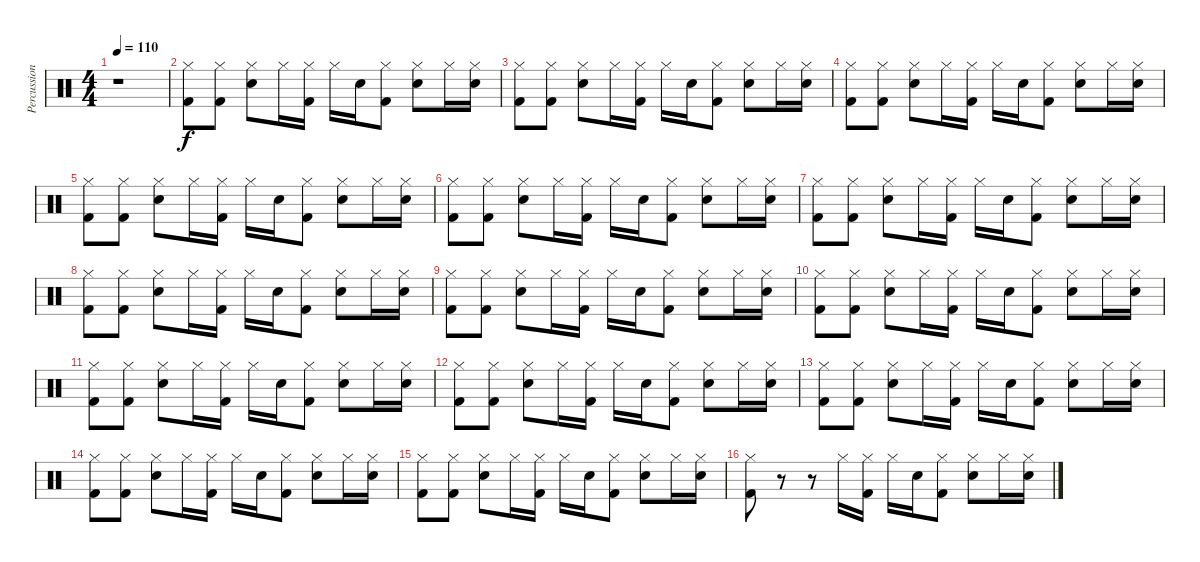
\track ("Percussion" "Percussion") {instrument percussion}
\staff {score}
\articulation defaults
\ts (4 4)
\tempo 110
\clef neutral
\ks c
r.1{dy f} |
("Hi-Hat (closed)" "Kick (hit) 2").8 ("Hi-Hat (closed)" "Kick (hit) 2").8 ("Hi-Hat (closed)" "Snare (hit) 2").8 "Hi-Hat (closed)".16 ("Hi-Hat (closed)" "Kick (hit) 2").16 "Hi-Hat (closed)".16 "Snare (hit) 2".16 ("Hi-Hat (closed)" "Kick (hit) 2").8 ("Hi-Hat (closed)" "Snare (hit) 2").8 "Hi-Hat (closed)".16 ("Hi-Hat (closed)" "Snare (hit) 2").16 |
("Hi-Hat (closed)" "Kick (hit) 2").8 ("Hi-Hat (closed)" "Kick (hit) 2").8 ("Hi-Hat (closed)" "Snare (hit) 2").8 "Hi-Hat (closed)".16 ("Hi-Hat (closed)" "Kick (hit) 2").16 "Hi-Hat (closed)".16 "Snare (hit) 2".16 ("Hi-Hat (closed)" "Kick (hit) 2").8 ("Hi-Hat (closed)" "Snare (hit) 2").8 "Hi-Hat (closed)".16 ("Hi-Hat (closed)" "Snare (hit) 2").16 |
("Hi-Hat (closed)" "Kick (hit) 2").8 ("Hi-Hat (closed)" "Kick (hit) 2").8 ("Hi-Hat (closed)" "Snare (hit) 2").8 "Hi-Hat (closed)".16 ("Hi-Hat (closed)" "Kick (hit) 2").16 "Hi-Hat (closed)".16 "Snare (hit) 2".16 ("Hi-Hat (closed)" "Kick (hit) 2").8 ("Hi-Hat (closed)" "Snare (hit) 2").8 "Hi-Hat (closed)".16 ("Hi-Hat (closed)" "Snare (hit) 2").16 |
("Hi-Hat (closed)" "Kick (hit) 2").8 ("Hi-Hat (closed)" "Kick (hit) 2").8 ("Hi-Hat (closed)" "Snare (hit) 2").8 "Hi-Hat (closed)".16 ("Hi-Hat (closed)" "Kick (hit) 2").16 "Hi-Hat (closed)".16 "Snare (hit) 2".16 ("Hi-Hat (closed)" "Kick (hit) 2").8 ("Hi-Hat (closed)" "Snare (hit) 2").8 "Hi-Hat (closed)".16 ("Hi-Hat (closed)" "Snare (hit) 2").16 |
("Hi-Hat (closed)" "Kick (hit) 2").8 ("Hi-Hat (closed)" "Kick (hit) 2").8 ("Hi-Hat (closed)" "Snare (hit) 2").8 "Hi-Hat (closed)".16 ("Hi-Hat (closed)" "Kick (hit) 2").16 "Hi-Hat (closed)".16 "Snare (hit) 2".16 ("Hi-Hat (closed)" "Kick (hit) 2").8 ("Hi-Hat (closed)" "Snare (hit) 2").8 "Hi-Hat (closed)".16 ("Hi-Hat (closed)" "Snare (hit) 2").16 |
("Hi-Hat (closed)" "Kick (hit) 2").8 ("Hi-Hat (closed)" "Kick (hit) 2").8 ("Hi-Hat (closed)" "Snare (hit) 2").8 "Hi-Hat (closed)".16 ("Hi-Hat (closed)" "Kick (hit) 2").16 "Hi-Hat (closed)".16 "Snare (hit) 2".16 ("Hi-Hat (closed)" "Kick (hit) 2").8 ("Hi-Hat (closed)" "Snare (hit) 2").8 "Hi-Hat (closed)".16 ("Hi-Hat (closed)" "Snare (hit) 2").16 |
("Hi-Hat (closed)" "Kick (hit) 2").8 ("Hi-Hat (closed)" "Kick (hit) 2").8 ("Hi-Hat (closed)" "Snare (hit) 2").8 "Hi-Hat (closed)".16 ("Hi-Hat (closed)" "Kick (hit) 2").16 "Hi-Hat (closed)".16 "Snare (hit) 2".16 ("Hi-Hat (closed)" "Kick (hit) 2").8 ("Hi-Hat (closed)" "Snare (hit) 2").8 "Hi-Hat (closed)".16 ("Hi-Hat (closed)" "Snare (hit) 2").16 |
("Hi-Hat (closed)" "Kick (hit) 2").8 ("Hi-Hat (closed)" "Kick (hit) 2").8 ("Hi-Hat (closed)" "Snare (hit) 2").8 "Hi-Hat (closed)".16 ("Hi-Hat (closed)" "Kick (hit) 2").16 "Hi-Hat (closed)".16 "Snare (hit) 2".16 ("Hi-Hat (closed)" "Kick (hit) 2").8 ("Hi-Hat (closed)" "Snare (hit) 2").8 "Hi-Hat (closed)".16 ("Hi-Hat (closed)" "Snare (hit) 2").16 |
("Hi-Hat (closed)" "Kick (hit) 2").8 ("Hi-Hat (closed)" "Kick (hit) 2").8 ("Hi-Hat (closed)" "Snare (hit) 2").8 "Hi-Hat (closed)".16 ("Hi-Hat (closed)" "Kick (hit) 2").16 "Hi-Hat (closed)".16 "Snare (hit) 2".16 ("Hi-Hat (closed)" "Kick (hit) 2").8 ("Hi-Hat (closed)" "Snare (hit) 2").8 "Hi-Hat (closed)".16 ("Hi-Hat (closed)" "Snare (hit) 2").16 |
("Hi-Hat (closed)" "Kick (hit) 2").8 ("Hi-Hat (closed)" "Kick (hit) 2").8 ("Hi-Hat (closed)" "Snare (hit) 2").8 "Hi-Hat (closed)".16 ("Hi-Hat (closed)" "Kick (hit) 2").16 "Hi-Hat (closed)".16 "Snare (hit) 2".16 ("Hi-Hat (closed)" "Kick (hit) 2").8 ("Hi-Hat (closed)" "Snare (hit) 2").8 "Hi-Hat (closed)".16 ("Hi-Hat (closed)" "Snare (hit) 2").16 |
("Hi-Hat (closed)" "Kick (hit) 2").8 ("Hi-Hat (closed)" "Kick (hit) 2").8 ("Hi-Hat (closed)" "Snare (hit) 2").8 "Hi-Hat (closed)".16 ("Hi-Hat (closed)" "Kick (hit) 2").16 "Hi-Hat (closed)".16 "Snare (hit) 2".16 ("Hi-Hat (closed)" "Kick (hit) 2").8 ("Hi-Hat (closed)" "Snare (hit) 2").8 "Hi-Hat (closed)".16 ("Hi-Hat (closed)" "Snare (hit) 2").16 |
("Hi-Hat (closed)" "Kick (hit) 2").8 ("Hi-Hat (closed)" "Kick (hit) 2").8 ("Hi-Hat (closed)" "Snare (hit) 2").8 "Hi-Hat (closed)".16 ("Hi-Hat (closed)" "Kick (hit) 2").16 "Hi-Hat (closed)".16 "Snare (hit) 2".16 ("Hi-Hat (closed)" "Kick (hit) 2").8 ("Hi-Hat (closed)" "Snare (hit) 2").8 "Hi-Hat (closed)".16 ("Hi-Hat (closed)" "Snare (hit) 2").16 |
("Hi-Hat (closed)" "Kick (hit) 2").8 ("Hi-Hat (closed)" "Kick (hit) 2").8 ("Hi-Hat (closed)" "Snare (hit) 2").8 "Hi-Hat (closed)".16 ("Hi-Hat (closed)" "Kick (hit) 2").16 "Hi-Hat (closed)".16 "Snare (hit) 2".16 ("Hi-Hat (closed)" "Kick (hit) 2").8 ("Hi-Hat (closed)" "Snare (hit) 2").8 "Hi-Hat (closed)".16 ("Hi-Hat (closed)" "Snare (hit) 2").16 |
("Hi-Hat (closed)" "Kick (hit) 2").8 ("Hi-Hat (closed)" "Kick (hit) 2").8 ("Hi-Hat (closed)" "Snare (hit) 2").8 "Hi-Hat (closed)".16 ("Hi-Hat (closed)" "Kick (hit) 2").16 "Hi-Hat (closed)".16 "Snare (hit) 2".16 ("Hi-Hat (closed)" "Kick (hit) 2").8 ("Hi-Hat (closed)" "Snare (hit) 2").8 "Hi-Hat (closed)".16 ("Hi-Hat (closed)" "Snare (hit) 2").16 |
("Hi-Hat (closed)" "Kick (hit) 2").8 r.8 r.8 "Hi-Hat (closed)".16 ("Hi-Hat (closed)" "Kick (hit) 2").16 "Hi-Hat (closed)".16 "Snare (hit) 2".16 ("Hi-Hat (closed)" "Kick (hit) 2").8 ("Hi-Hat (closed)" "Snare (hit) 2").8 "Hi-Hat (closed)".16 ("Hi-Hat (closed)" "Snare (hit) 2").16
